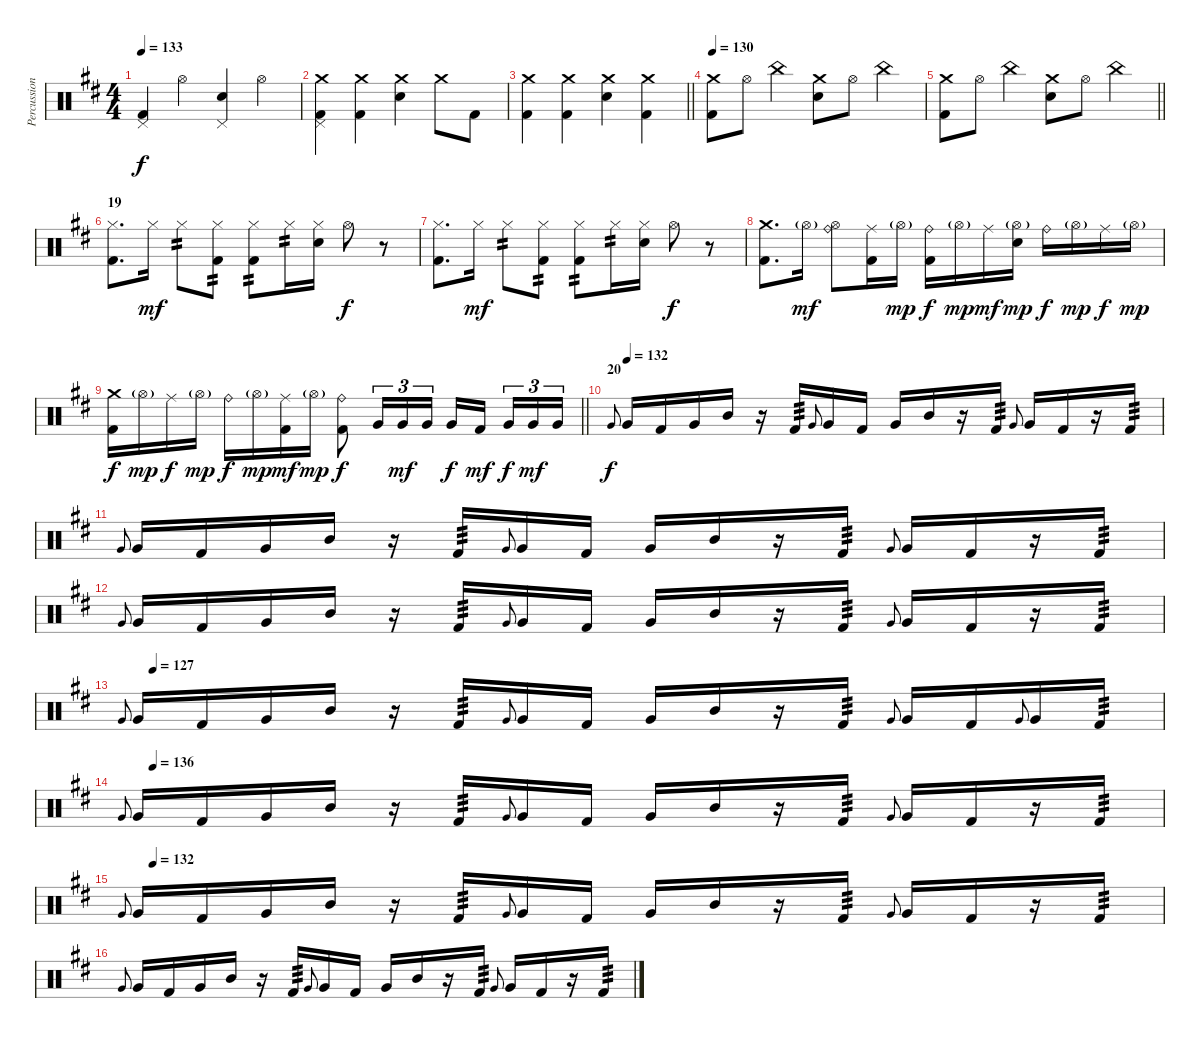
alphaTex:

\track ("Percussion" "Percussion") {instrument percussion}
\staff {score}
\articulation defaults
\ts (4 4)
\tempo 133
\clef neutral
\ks bminor
("Pedal Hi-Hat (hit)" "Kick (hit) 2").4{dy f} "Hi-Hat (open)".4 ("Pedal Hi-Hat (hit)" "Snare (hit) 2").4 "Hi-Hat (open)".4 |
("Crash medium (hit)" "Pedal Hi-Hat (hit)" "Kick (hit) 2").4 ("Crash medium (hit)" "Kick (hit) 2").4 ("Crash medium (hit)" "Snare (hit) 2").4 "Crash medium (hit)".8 "Kick (hit) 2".8 |
\barLineRight lightlight
("Crash medium (hit)" "Kick (hit) 2").4 ("Crash medium (hit)" "Kick (hit) 2").4 ("Crash medium (hit)" "Snare (hit) 2").4 ("Crash medium (hit)" "Kick (hit) 2").4 |
\section ("" "")
\tempo 130
("Crash medium (hit)" "Kick (hit) 2").8 "Hi-Hat (open)".8 "China (hit)".4 ("Crash medium (hit)" "Snare (hit) 2").8 "Hi-Hat (open)".8 "China (hit)".4 |
\barLineRight lightlight
("Crash medium (hit)" "Kick (hit) 2").8 "Hi-Hat (open)".8 "China (hit)".4 ("Crash medium (hit)" "Snare (hit) 2").8 "Hi-Hat (open)".8 "China (hit)".4 |
\section ("" "19")
("Hi-Hat (closed)" "Kick (hit) 2").8{d} "Hi-Hat (closed)".16{dy mf} "Hi-Hat (closed)".8{tp 2} ("Hi-Hat (closed)" "Kick (hit) 2").8{tp 2} ("Hi-Hat (closed)" "Kick (hit) 2").8{tp 2} "Hi-Hat (closed)".16{tp 2} ("Hi-Hat (closed)" "Snare (hit) 2").16 "Hi-Hat (open)".8{dy f} r.8 |
("Hi-Hat (closed)" "Kick (hit) 2").8{d} "Hi-Hat (closed)".16{dy mf} "Hi-Hat (closed)".8{tp 2} ("Hi-Hat (closed)" "Kick (hit) 2").8{tp 2} ("Hi-Hat (closed)" "Kick (hit) 2").8{tp 2} "Hi-Hat (closed)".16{tp 2} ("Hi-Hat (closed)" "Snare (hit) 2").16 "Hi-Hat (open)".8{dy f} r.8 |
("Crash medium (hit)" "Kick (hit) 2").8{d} "Hi-Hat (open)"{g}.16{dy mf} ("Ride (bell)" "Hi-Hat (open)").8 ("Ride (middle)" "Kick (hit) 2").16 "Hi-Hat (open)"{g}.16{dy mp} ("Ride (bell)" "Kick (hit) 2").16{dy f} "Hi-Hat (open)"{g}.16{dy mp} "Ride (middle)".16{dy mf} ("Hi-Hat (open)"{g} "Snare (hit) 2").16{dy mp} "Ride (bell)".16{dy f} "Hi-Hat (open)"{g}.16{dy mp} "Ride (middle)".16{dy f} "Hi-Hat (open)"{g}.16{dy mp} |
\barLineRight lightlight
("Crash medium (hit)" "Kick (hit) 2").16{dy f} "Hi-Hat (open)"{g}.16{dy mp} "Ride (middle)".16{dy f} "Hi-Hat (open)"{g}.16{dy mp} "Ride (bell)".16{dy f} "Hi-Hat (open)"{g}.16{dy mp} ("Ride (middle)" "Kick (hit) 2").16{dy mf} "Hi-Hat (open)"{g}.16{dy mp} ("Ride (bell)" "Kick (hit) 2").8{dy f} "Very Low Tom (hit)".16{tu (3 2)} "Very Low Tom (hit)".16{tu (3 2) dy mf} "Very Low Tom (hit)".16{tu (3 2)} "Very Low Tom (hit)".16{dy f} "Kick (hit) 2".16{dy mf beam splitsecondary} "Very Low Tom (hit)".16{tu (3 2) dy f} "Very Low Tom (hit)".16{tu (3 2) dy mf} "Very Low Tom (hit)".16{tu (3 2)} |
\section ("" "20")
\tempo (132 0.03125)
"Very Low Tom (hit)".8{gr onbeat dy f} "Very Low Tom (hit)".16 "Kick (hit) 2".16 "Very Low Tom (hit)".16 "Mid Tom (hit)".16 r.16 "Kick (hit) 2".16{tp 3} "Very Low Tom (hit)".8{gr onbeat} "Very Low Tom (hit)".16 "Kick (hit) 2".16 "Very Low Tom (hit)".16 "Mid Tom (hit)".16 r.16 "Kick (hit) 2".16{tp 3} "Very Low Tom (hit)".8{gr onbeat} "Very Low Tom (hit)".16 "Kick (hit) 2".16 r.16 "Kick (hit) 2".16{tp 3} |
"Very Low Tom (hit)".8{gr onbeat} "Very Low Tom (hit)".16 "Kick (hit) 2".16 "Very Low Tom (hit)".16 "Mid Tom (hit)".16 r.16 "Kick (hit) 2".16{tp 3} "Very Low Tom (hit)".8{gr onbeat} "Very Low Tom (hit)".16 "Kick (hit) 2".16 "Very Low Tom (hit)".16 "Mid Tom (hit)".16 r.16 "Kick (hit) 2".16{tp 3} "Very Low Tom (hit)".8{gr onbeat} "Very Low Tom (hit)".16 "Kick (hit) 2".16 r.16 "Kick (hit) 2".16{tp 3} |
"Very Low Tom (hit)".8{gr onbeat} "Very Low Tom (hit)".16 "Kick (hit) 2".16 "Very Low Tom (hit)".16 "Mid Tom (hit)".16 r.16 "Kick (hit) 2".16{tp 3} "Very Low Tom (hit)".8{gr onbeat} "Very Low Tom (hit)".16 "Kick (hit) 2".16 "Very Low Tom (hit)".16 "Mid Tom (hit)".16 r.16 "Kick (hit) 2".16{tp 3} "Very Low Tom (hit)".8{gr onbeat} "Very Low Tom (hit)".16 "Kick (hit) 2".16 r.16 "Kick (hit) 2".16{tp 3} |
\tempo (127 0.03125)
"Very Low Tom (hit)".8{gr onbeat} "Very Low Tom (hit)".16 "Kick (hit) 2".16 "Very Low Tom (hit)".16 "Mid Tom (hit)".16 r.16 "Kick (hit) 2".16{tp 3} "Very Low Tom (hit)".8{gr onbeat} "Very Low Tom (hit)".16 "Kick (hit) 2".16 "Very Low Tom (hit)".16 "Mid Tom (hit)".16 r.16 "Kick (hit) 2".16{tp 3} "Very Low Tom (hit)".8{gr onbeat} "Very Low Tom (hit)".16 "Kick (hit) 2".16 "Very Low Tom (hit)".8{gr onbeat} "Very Low Tom (hit)".16 "Kick (hit) 2".16{tp 3} |
\tempo (136 0.03125)
"Very Low Tom (hit)".8{gr onbeat} "Very Low Tom (hit)".16 "Kick (hit) 2".16 "Very Low Tom (hit)".16 "Mid Tom (hit)".16 r.16 "Kick (hit) 2".16{tp 3} "Very Low Tom (hit)".8{gr onbeat} "Very Low Tom (hit)".16 "Kick (hit) 2".16 "Very Low Tom (hit)".16 "Mid Tom (hit)".16 r.16 "Kick (hit) 2".16{tp 3} "Very Low Tom (hit)".8{gr onbeat} "Very Low Tom (hit)".16 "Kick (hit) 2".16 r.16 "Kick (hit) 2".16{tp 3} |
\tempo (132 0.03125)
"Very Low Tom (hit)".8{gr onbeat} "Very Low Tom (hit)".16 "Kick (hit) 2".16 "Very Low Tom (hit)".16 "Mid Tom (hit)".16 r.16 "Kick (hit) 2".16{tp 3} "Very Low Tom (hit)".8{gr onbeat} "Very Low Tom (hit)".16 "Kick (hit) 2".16 "Very Low Tom (hit)".16 "Mid Tom (hit)".16 r.16 "Kick (hit) 2".16{tp 3} "Very Low Tom (hit)".8{gr onbeat} "Very Low Tom (hit)".16 "Kick (hit) 2".16 r.16 "Kick (hit) 2".16{tp 3} |
"Very Low Tom (hit)".8{gr onbeat} "Very Low Tom (hit)".16 "Kick (hit) 2".16 "Very Low Tom (hit)".16 "Mid Tom (hit)".16 r.16 "Kick (hit) 2".16{tp 3} "Very Low Tom (hit)".8{gr onbeat} "Very Low Tom (hit)".16 "Kick (hit) 2".16 "Very Low Tom (hit)".16 "Mid Tom (hit)".16 r.16 "Kick (hit) 2".16{tp 3} "Very Low Tom (hit)".8{gr onbeat} "Very Low Tom (hit)".16 "Kick (hit) 2".16 r.16 "Kick (hit) 2".16{tp 3}
